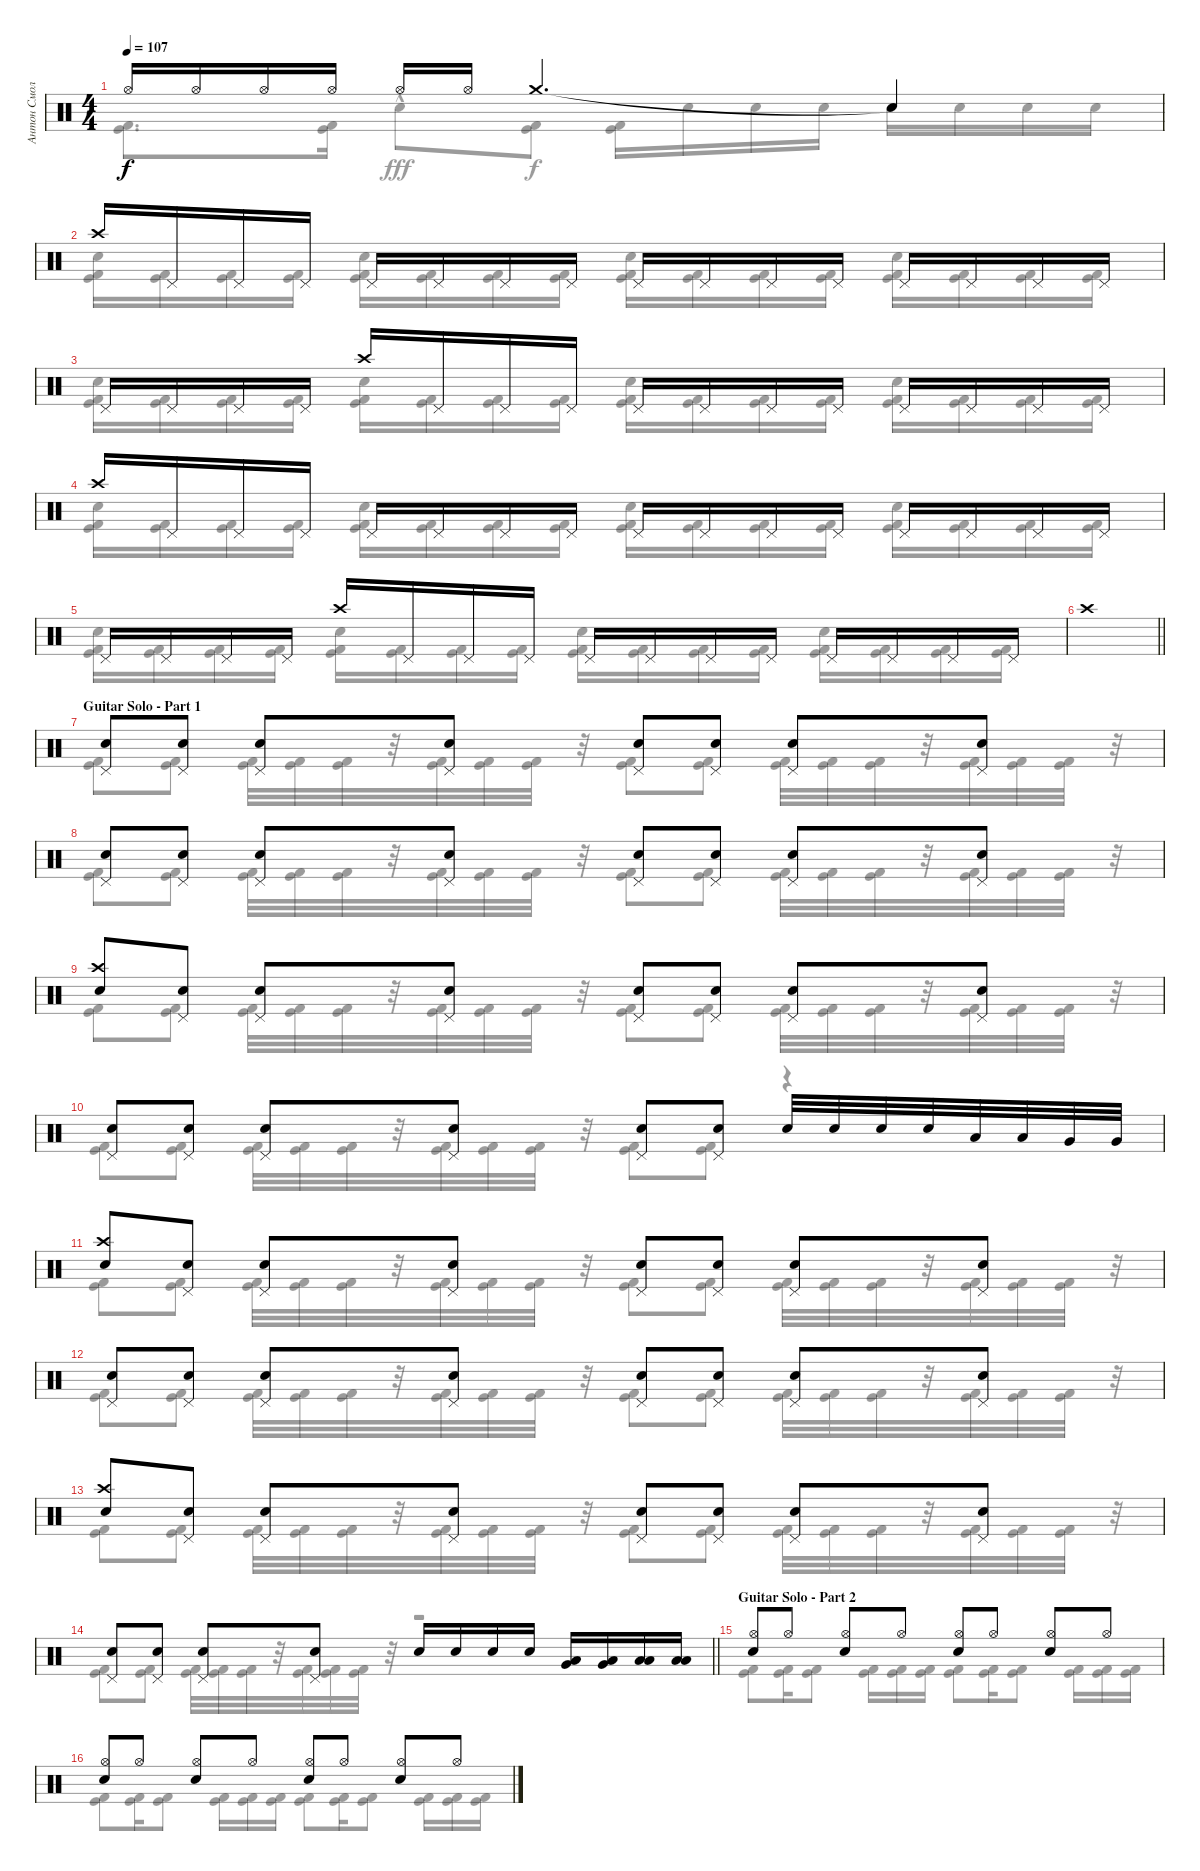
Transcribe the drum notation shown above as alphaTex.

\track ("Антон Смольянин" "Антон Смол") {instrument percussion}
\staff {score}
\articulation defaults
\voice
\ts (4 4)
\tempo 107
\clef neutral
\ks c "Hi-Hat (open)".16{dy f} "Hi-Hat (open)".16 "Hi-Hat (open)".16 "Hi-Hat (open)".16 "Hi-Hat (open)".16 "Hi-Hat (open)".16 "Crash medium (hit)".4{d} "Snare (hit)"{t}.4
|
"Crash high (hit)".16 "Pedal Hi-Hat (hit)".16 "Pedal Hi-Hat (hit)".16 "Pedal Hi-Hat (hit)".16 "Pedal Hi-Hat (hit)".16 "Pedal Hi-Hat (hit)".16 "Pedal Hi-Hat (hit)".16 "Pedal Hi-Hat (hit)".16 "Pedal Hi-Hat (hit)".16 "Pedal Hi-Hat (hit)".16 "Pedal Hi-Hat (hit)".16 "Pedal Hi-Hat (hit)".16 "Pedal Hi-Hat (hit)".16 "Pedal Hi-Hat (hit)".16 "Pedal Hi-Hat (hit)".16 "Pedal Hi-Hat (hit)".16 |
"Pedal Hi-Hat (hit)".16 "Pedal Hi-Hat (hit)".16 "Pedal Hi-Hat (hit)".16 "Pedal Hi-Hat (hit)".16 "Crash high (hit)".16 "Pedal Hi-Hat (hit)".16 "Pedal Hi-Hat (hit)".16 "Pedal Hi-Hat (hit)".16 "Pedal Hi-Hat (hit)".16 "Pedal Hi-Hat (hit)".16 "Pedal Hi-Hat (hit)".16 "Pedal Hi-Hat (hit)".16 "Pedal Hi-Hat (hit)".16 "Pedal Hi-Hat (hit)".16 "Pedal Hi-Hat (hit)".16 "Pedal Hi-Hat (hit)".16 |
"Crash high (hit)".16 "Pedal Hi-Hat (hit)".16 "Pedal Hi-Hat (hit)".16 "Pedal Hi-Hat (hit)".16 "Pedal Hi-Hat (hit)".16 "Pedal Hi-Hat (hit)".16 "Pedal Hi-Hat (hit)".16 "Pedal Hi-Hat (hit)".16 "Pedal Hi-Hat (hit)".16 "Pedal Hi-Hat (hit)".16 "Pedal Hi-Hat (hit)".16 "Pedal Hi-Hat (hit)".16 "Pedal Hi-Hat (hit)".16 "Pedal Hi-Hat (hit)".16 "Pedal Hi-Hat (hit)".16 "Pedal Hi-Hat (hit)".16 |
"Pedal Hi-Hat (hit)".16 "Pedal Hi-Hat (hit)".16 "Pedal Hi-Hat (hit)".16 "Pedal Hi-Hat (hit)".16 "Crash high (hit)".16 "Pedal Hi-Hat (hit)".16 "Pedal Hi-Hat (hit)".16 "Pedal Hi-Hat (hit)".16 "Pedal Hi-Hat (hit)".16 "Pedal Hi-Hat (hit)".16 "Pedal Hi-Hat (hit)".16 "Pedal Hi-Hat (hit)".16 "Pedal Hi-Hat (hit)".16 "Pedal Hi-Hat (hit)".16 "Pedal Hi-Hat (hit)".16 "Pedal Hi-Hat (hit)".16 |
\barLineRight lightlight "Crash high (hit)".1
|
\section ("" "Guitar Solo - Part 1")
("Snare (hit) 2" "Pedal Hi-Hat (hit)").8 ("Snare (hit) 2" "Pedal Hi-Hat (hit)").8 ("Snare (hit) 2" "Pedal Hi-Hat (hit)").8 ("Snare (hit) 2" "Pedal Hi-Hat (hit)").8 ("Snare (hit) 2" "Pedal Hi-Hat (hit)").8 ("Snare (hit) 2" "Pedal Hi-Hat (hit)").8 ("Snare (hit) 2" "Pedal Hi-Hat (hit)").8 ("Snare (hit) 2" "Pedal Hi-Hat (hit)").8 |
("Snare (hit) 2" "Pedal Hi-Hat (hit)").8 ("Snare (hit) 2" "Pedal Hi-Hat (hit)").8 ("Snare (hit) 2" "Pedal Hi-Hat (hit)").8 ("Snare (hit) 2" "Pedal Hi-Hat (hit)").8 ("Snare (hit) 2" "Pedal Hi-Hat (hit)").8 ("Snare (hit) 2" "Pedal Hi-Hat (hit)").8 ("Snare (hit) 2" "Pedal Hi-Hat (hit)").8 ("Snare (hit) 2" "Pedal Hi-Hat (hit)").8 |
("Snare (hit) 2" "Crash high (hit)").8 ("Snare (hit) 2" "Pedal Hi-Hat (hit)").8 ("Snare (hit) 2" "Pedal Hi-Hat (hit)").8 ("Snare (hit) 2" "Pedal Hi-Hat (hit)").8 ("Snare (hit) 2" "Pedal Hi-Hat (hit)").8 ("Snare (hit) 2" "Pedal Hi-Hat (hit)").8 ("Snare (hit) 2" "Pedal Hi-Hat (hit)").8 ("Snare (hit) 2" "Pedal Hi-Hat (hit)").8 |
("Snare (hit) 2" "Pedal Hi-Hat (hit)").8 ("Snare (hit) 2" "Pedal Hi-Hat (hit)").8 ("Snare (hit) 2" "Pedal Hi-Hat (hit)").8 ("Snare (hit) 2" "Pedal Hi-Hat (hit)").8 ("Snare (hit) 2" "Pedal Hi-Hat (hit)").8 ("Snare (hit) 2" "Pedal Hi-Hat (hit)").8 "Snare (hit) 2".32 "Snare (hit) 2".32 "Snare (hit) 2".32 "Snare (hit) 2".32 "Low Tom (hit)".32 "Low Tom (hit)".32 "Very Low Tom (hit)".32 "Very Low Tom (hit)".32 |
("Snare (hit) 2" "Crash high (hit)").8 ("Snare (hit) 2" "Pedal Hi-Hat (hit)").8 ("Snare (hit) 2" "Pedal Hi-Hat (hit)").8 ("Snare (hit) 2" "Pedal Hi-Hat (hit)").8 ("Snare (hit) 2" "Pedal Hi-Hat (hit)").8 ("Snare (hit) 2" "Pedal Hi-Hat (hit)").8 ("Snare (hit) 2" "Pedal Hi-Hat (hit)").8 ("Snare (hit) 2" "Pedal Hi-Hat (hit)").8 |
("Snare (hit) 2" "Pedal Hi-Hat (hit)").8 ("Snare (hit) 2" "Pedal Hi-Hat (hit)").8 ("Snare (hit) 2" "Pedal Hi-Hat (hit)").8 ("Snare (hit) 2" "Pedal Hi-Hat (hit)").8 ("Snare (hit) 2" "Pedal Hi-Hat (hit)").8 ("Snare (hit) 2" "Pedal Hi-Hat (hit)").8 ("Snare (hit) 2" "Pedal Hi-Hat (hit)").8 ("Snare (hit) 2" "Pedal Hi-Hat (hit)").8 |
("Snare (hit) 2" "Crash high (hit)").8 ("Snare (hit) 2" "Pedal Hi-Hat (hit)").8 ("Snare (hit) 2" "Pedal Hi-Hat (hit)").8 ("Snare (hit) 2" "Pedal Hi-Hat (hit)").8 ("Snare (hit) 2" "Pedal Hi-Hat (hit)").8 ("Snare (hit) 2" "Pedal Hi-Hat (hit)").8 ("Snare (hit) 2" "Pedal Hi-Hat (hit)").8 ("Snare (hit) 2" "Pedal Hi-Hat (hit)").8 |
\barLineRight lightlight
("Snare (hit) 2" "Pedal Hi-Hat (hit)").8 ("Snare (hit) 2" "Pedal Hi-Hat (hit)").8 ("Snare (hit) 2" "Pedal Hi-Hat (hit)").8 ("Snare (hit) 2" "Pedal Hi-Hat (hit)").8 "Snare (hit) 2".16 "Snare (hit) 2".16 "Snare (hit) 2".16 "Snare (hit) 2".16 ("Very Low Tom (hit)" "Low Tom (hit)").16 ("Very Low Tom (hit)" "Low Tom (hit)").16 ("Low Floor Tom (hit)" "Low Tom (hit)").16 ("Low Floor Tom (hit)" "Low Tom (hit)").16 |
\section ("" "Guitar Solo - Part 2")
("Hi-Hat (open)" "Snare (hit) 2").8 "Hi-Hat (open)".8 ("Hi-Hat (open)" "Snare (hit) 2").8 "Hi-Hat (open)".8 ("Hi-Hat (open)" "Snare (hit) 2").8 "Hi-Hat (open)".8 ("Hi-Hat (open)" "Snare (hit) 2").8 "Hi-Hat (open)".8 |
("Hi-Hat (open)" "Snare (hit) 2").8 "Hi-Hat (open)".8 ("Hi-Hat (open)" "Snare (hit) 2").8 "Hi-Hat (open)".8 ("Hi-Hat (open)" "Snare (hit) 2").8 "Hi-Hat (open)".8 ("Hi-Hat (open)" "Snare (hit) 2").8 "Hi-Hat (open)".8
\voice
\clef neutral
\ottava regular
\simile none
\ks c
("Kick (hit)" "Kick (hit) 2").8{d dy f} ("Kick (hit)" "Kick (hit) 2").16 "Snare (hit) 2"{hac}.8{dy fff} ("Kick (hit)" "Kick (hit) 2").8{dy f} ("Kick (hit)" "Kick (hit) 2").16 "Snare (hit) 2".16 "Snare (hit) 2".16 "Snare (hit) 2".16 "Snare (hit) 2".16 "Snare (hit) 2".16 "Snare (hit) 2".16 "Snare (hit) 2".16 |
("Kick (hit)" "Kick (hit) 2" "Snare (hit) 2").16 ("Kick (hit)" "Kick (hit) 2").16 ("Kick (hit)" "Kick (hit) 2").16 ("Kick (hit)" "Kick (hit) 2").16 ("Kick (hit)" "Kick (hit) 2" "Snare (hit) 2").16 ("Kick (hit)" "Kick (hit) 2").16 ("Kick (hit)" "Kick (hit) 2").16 ("Kick (hit)" "Kick (hit) 2").16 ("Kick (hit)" "Kick (hit) 2" "Snare (hit) 2").16 ("Kick (hit)" "Kick (hit) 2").16 ("Kick (hit)" "Kick (hit) 2").16 ("Kick (hit)" "Kick (hit) 2").16 ("Kick (hit)" "Kick (hit) 2" "Snare (hit) 2").16 ("Kick (hit)" "Kick (hit) 2").16 ("Kick (hit)" "Kick (hit) 2").16 ("Kick (hit)" "Kick (hit) 2").16 |
("Kick (hit)" "Kick (hit) 2" "Snare (hit) 2").16 ("Kick (hit)" "Kick (hit) 2").16 ("Kick (hit)" "Kick (hit) 2").16 ("Kick (hit)" "Kick (hit) 2").16 ("Kick (hit)" "Kick (hit) 2" "Snare (hit) 2").16 ("Kick (hit)" "Kick (hit) 2").16 ("Kick (hit)" "Kick (hit) 2").16 ("Kick (hit)" "Kick (hit) 2").16 ("Kick (hit)" "Kick (hit) 2" "Snare (hit) 2").16 ("Kick (hit)" "Kick (hit) 2").16 ("Kick (hit)" "Kick (hit) 2").16 ("Kick (hit)" "Kick (hit) 2").16 ("Kick (hit)" "Kick (hit) 2" "Snare (hit) 2").16 ("Kick (hit)" "Kick (hit) 2").16 ("Kick (hit)" "Kick (hit) 2").16 ("Kick (hit)" "Kick (hit) 2").16 |
("Kick (hit)" "Kick (hit) 2" "Snare (hit) 2").16 ("Kick (hit)" "Kick (hit) 2").16 ("Kick (hit)" "Kick (hit) 2").16 ("Kick (hit)" "Kick (hit) 2").16 ("Kick (hit)" "Kick (hit) 2" "Snare (hit) 2").16 ("Kick (hit)" "Kick (hit) 2").16 ("Kick (hit)" "Kick (hit) 2").16 ("Kick (hit)" "Kick (hit) 2").16 ("Kick (hit)" "Kick (hit) 2" "Snare (hit) 2").16 ("Kick (hit)" "Kick (hit) 2").16 ("Kick (hit)" "Kick (hit) 2").16 ("Kick (hit)" "Kick (hit) 2").16 ("Kick (hit)" "Kick (hit) 2" "Snare (hit) 2").16 ("Kick (hit)" "Kick (hit) 2").16 ("Kick (hit)" "Kick (hit) 2").16 ("Kick (hit)" "Kick (hit) 2").16 |
("Kick (hit)" "Kick (hit) 2" "Snare (hit) 2").16 ("Kick (hit)" "Kick (hit) 2").16 ("Kick (hit)" "Kick (hit) 2").16 ("Kick (hit)" "Kick (hit) 2").16 ("Kick (hit)" "Kick (hit) 2" "Snare (hit) 2").16 ("Kick (hit)" "Kick (hit) 2").16 ("Kick (hit)" "Kick (hit) 2").16 ("Kick (hit)" "Kick (hit) 2").16 ("Kick (hit)" "Kick (hit) 2" "Snare (hit) 2").16 ("Kick (hit)" "Kick (hit) 2").16 ("Kick (hit)" "Kick (hit) 2").16 ("Kick (hit)" "Kick (hit) 2").16 ("Kick (hit)" "Kick (hit) 2" "Snare (hit) 2").16 ("Kick (hit)" "Kick (hit) 2").16 ("Kick (hit)" "Kick (hit) 2").16 ("Kick (hit)" "Kick (hit) 2").16 |
\barLineRight lightlight
|
("Kick (hit)" "Kick (hit) 2").8 ("Kick (hit)" "Kick (hit) 2").8 ("Kick (hit)" "Kick (hit) 2").32 ("Kick (hit)" "Kick (hit) 2").32 ("Kick (hit)" "Kick (hit) 2").32 r.32 ("Kick (hit)" "Kick (hit) 2").32 ("Kick (hit)" "Kick (hit) 2").32 ("Kick (hit)" "Kick (hit) 2").32 r.32 ("Kick (hit)" "Kick (hit) 2").8 ("Kick (hit)" "Kick (hit) 2").8 ("Kick (hit)" "Kick (hit) 2").32 ("Kick (hit)" "Kick (hit) 2").32 ("Kick (hit)" "Kick (hit) 2").32 r.32 ("Kick (hit)" "Kick (hit) 2").32 ("Kick (hit)" "Kick (hit) 2").32 ("Kick (hit)" "Kick (hit) 2").32 r.32 |
("Kick (hit)" "Kick (hit) 2").8 ("Kick (hit)" "Kick (hit) 2").8 ("Kick (hit)" "Kick (hit) 2").32 ("Kick (hit)" "Kick (hit) 2").32 ("Kick (hit)" "Kick (hit) 2").32 r.32 ("Kick (hit)" "Kick (hit) 2").32 ("Kick (hit)" "Kick (hit) 2").32 ("Kick (hit)" "Kick (hit) 2").32 r.32 ("Kick (hit)" "Kick (hit) 2").8 ("Kick (hit)" "Kick (hit) 2").8 ("Kick (hit)" "Kick (hit) 2").32 ("Kick (hit)" "Kick (hit) 2").32 ("Kick (hit)" "Kick (hit) 2").32 r.32 ("Kick (hit)" "Kick (hit) 2").32 ("Kick (hit)" "Kick (hit) 2").32 ("Kick (hit)" "Kick (hit) 2").32 r.32 |
("Kick (hit)" "Kick (hit) 2").8 ("Kick (hit)" "Kick (hit) 2").8 ("Kick (hit)" "Kick (hit) 2").32 ("Kick (hit)" "Kick (hit) 2").32 ("Kick (hit)" "Kick (hit) 2").32 r.32 ("Kick (hit)" "Kick (hit) 2").32 ("Kick (hit)" "Kick (hit) 2").32 ("Kick (hit)" "Kick (hit) 2").32 r.32 ("Kick (hit)" "Kick (hit) 2").8 ("Kick (hit)" "Kick (hit) 2").8 ("Kick (hit)" "Kick (hit) 2").32 ("Kick (hit)" "Kick (hit) 2").32 ("Kick (hit)" "Kick (hit) 2").32 r.32 ("Kick (hit)" "Kick (hit) 2").32 ("Kick (hit)" "Kick (hit) 2").32 ("Kick (hit)" "Kick (hit) 2").32 r.32 |
("Kick (hit)" "Kick (hit) 2").8 ("Kick (hit)" "Kick (hit) 2").8 ("Kick (hit)" "Kick (hit) 2").32 ("Kick (hit)" "Kick (hit) 2").32 ("Kick (hit)" "Kick (hit) 2").32 r.32 ("Kick (hit)" "Kick (hit) 2").32 ("Kick (hit)" "Kick (hit) 2").32 ("Kick (hit)" "Kick (hit) 2").32 r.32 ("Kick (hit)" "Kick (hit) 2").8 ("Kick (hit)" "Kick (hit) 2").8 r.4 |
("Kick (hit)" "Kick (hit) 2").8 ("Kick (hit)" "Kick (hit) 2").8 ("Kick (hit)" "Kick (hit) 2").32 ("Kick (hit)" "Kick (hit) 2").32 ("Kick (hit)" "Kick (hit) 2").32 r.32 ("Kick (hit)" "Kick (hit) 2").32 ("Kick (hit)" "Kick (hit) 2").32 ("Kick (hit)" "Kick (hit) 2").32 r.32 ("Kick (hit)" "Kick (hit) 2").8 ("Kick (hit)" "Kick (hit) 2").8 ("Kick (hit)" "Kick (hit) 2").32 ("Kick (hit)" "Kick (hit) 2").32 ("Kick (hit)" "Kick (hit) 2").32 r.32 ("Kick (hit)" "Kick (hit) 2").32 ("Kick (hit)" "Kick (hit) 2").32 ("Kick (hit)" "Kick (hit) 2").32 r.32 |
("Kick (hit)" "Kick (hit) 2").8 ("Kick (hit)" "Kick (hit) 2").8 ("Kick (hit)" "Kick (hit) 2").32 ("Kick (hit)" "Kick (hit) 2").32 ("Kick (hit)" "Kick (hit) 2").32 r.32 ("Kick (hit)" "Kick (hit) 2").32 ("Kick (hit)" "Kick (hit) 2").32 ("Kick (hit)" "Kick (hit) 2").32 r.32 ("Kick (hit)" "Kick (hit) 2").8 ("Kick (hit)" "Kick (hit) 2").8 ("Kick (hit)" "Kick (hit) 2").32 ("Kick (hit)" "Kick (hit) 2").32 ("Kick (hit)" "Kick (hit) 2").32 r.32 ("Kick (hit)" "Kick (hit) 2").32 ("Kick (hit)" "Kick (hit) 2").32 ("Kick (hit)" "Kick (hit) 2").32 r.32 |
("Kick (hit)" "Kick (hit) 2").8 ("Kick (hit)" "Kick (hit) 2").8 ("Kick (hit)" "Kick (hit) 2").32 ("Kick (hit)" "Kick (hit) 2").32 ("Kick (hit)" "Kick (hit) 2").32 r.32 ("Kick (hit)" "Kick (hit) 2").32 ("Kick (hit)" "Kick (hit) 2").32 ("Kick (hit)" "Kick (hit) 2").32 r.32 ("Kick (hit)" "Kick (hit) 2").8 ("Kick (hit)" "Kick (hit) 2").8 ("Kick (hit)" "Kick (hit) 2").32 ("Kick (hit)" "Kick (hit) 2").32 ("Kick (hit)" "Kick (hit) 2").32 r.32 ("Kick (hit)" "Kick (hit) 2").32 ("Kick (hit)" "Kick (hit) 2").32 ("Kick (hit)" "Kick (hit) 2").32 r.32 |
\barLineRight lightlight
("Kick (hit)" "Kick (hit) 2").8 ("Kick (hit)" "Kick (hit) 2").8 ("Kick (hit)" "Kick (hit) 2").32 ("Kick (hit)" "Kick (hit) 2").32 ("Kick (hit)" "Kick (hit) 2").32 r.32 ("Kick (hit)" "Kick (hit) 2").32 ("Kick (hit)" "Kick (hit) 2").32 ("Kick (hit)" "Kick (hit) 2").32 r.32 r.2 |
("Kick (hit)" "Kick (hit) 2").8 ("Kick (hit)" "Kick (hit) 2").16 ("Kick (hit)" "Kick (hit) 2").8 ("Kick (hit)" "Kick (hit) 2").16 ("Kick (hit)" "Kick (hit) 2").16 ("Kick (hit)" "Kick (hit) 2").16 ("Kick (hit)" "Kick (hit) 2").8 ("Kick (hit)" "Kick (hit) 2").16 ("Kick (hit)" "Kick (hit) 2").8 ("Kick (hit)" "Kick (hit) 2").16 ("Kick (hit)" "Kick (hit) 2").16 ("Kick (hit)" "Kick (hit) 2").16 |
("Kick (hit)" "Kick (hit) 2").8 ("Kick (hit)" "Kick (hit) 2").16 ("Kick (hit)" "Kick (hit) 2").8 ("Kick (hit)" "Kick (hit) 2").16 ("Kick (hit)" "Kick (hit) 2").16 ("Kick (hit)" "Kick (hit) 2").16 ("Kick (hit)" "Kick (hit) 2").8 ("Kick (hit)" "Kick (hit) 2").16 ("Kick (hit)" "Kick (hit) 2").8 ("Kick (hit)" "Kick (hit) 2").16 ("Kick (hit)" "Kick (hit) 2").16 ("Kick (hit)" "Kick (hit) 2").16
